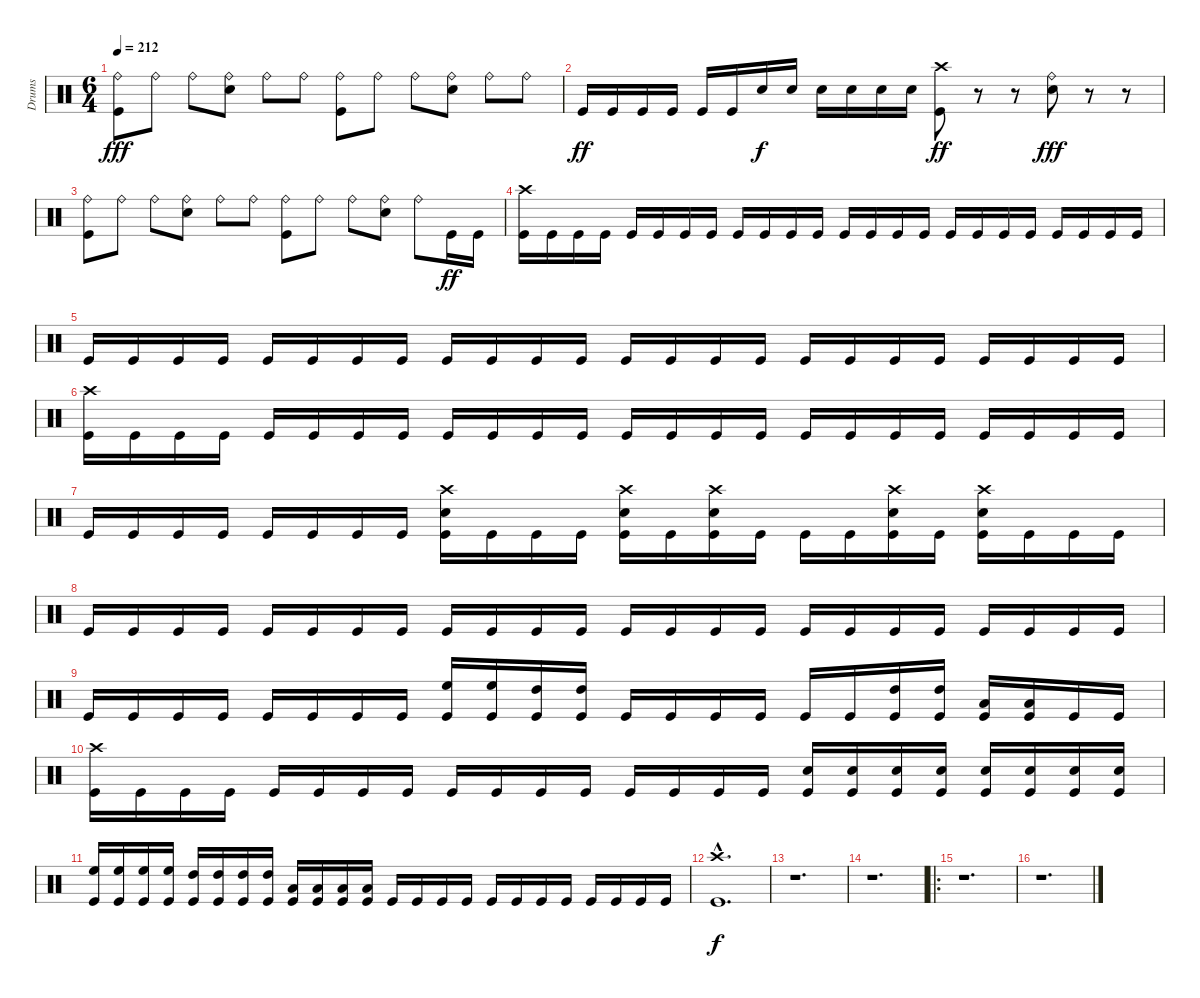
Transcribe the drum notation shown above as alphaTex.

\track ("Drums" "Drums") {instrument percussion}
\staff {score}
\articulation defaults
\ts (6 4)
\tempo 212
\clef neutral
\ks c
("Ride (bell)" "Kick (hit)").8{dy fff} "Ride (bell)".8 "Ride (bell)".8 ("Ride (bell)" "Snare (hit) 2").8 "Ride (bell)".8 "Ride (bell)".8 ("Ride (bell)" "Kick (hit)").8 "Ride (bell)".8 "Ride (bell)".8 ("Ride (bell)" "Snare (hit) 2").8 "Ride (bell)".8 "Ride (bell)".8 |
"Kick (hit)".16{dy ff} "Kick (hit)".16 "Kick (hit)".16 "Kick (hit)".16 "Kick (hit)".16 "Kick (hit)".16 "Snare (hit) 2".16{dy f} "Snare (hit) 2".16 "Snare (hit) 2".16 "Snare (hit) 2".16 "Snare (hit) 2".16 "Snare (hit) 2".16 ("Crash high (hit)" "Kick (hit)").8{dy ff} r.8 r.8 ("Ride (bell)" "Snare (hit) 2").8{dy fff} r.8 r.8 |
("Ride (bell)" "Kick (hit)").8 "Ride (bell)".8 "Ride (bell)".8 ("Ride (bell)" "Snare (hit) 2").8 "Ride (bell)".8 "Ride (bell)".8 ("Ride (bell)" "Kick (hit)").8 "Ride (bell)".8 "Ride (bell)".8 ("Ride (bell)" "Snare (hit) 2").8 "Ride (bell)".8 "Kick (hit)".16{dy ff} "Kick (hit)".16 |
("Crash high (hit)" "Kick (hit)").16 "Kick (hit)".16 "Kick (hit)".16 "Kick (hit)".16 "Kick (hit)".16 "Kick (hit)".16 "Kick (hit)".16 "Kick (hit)".16 "Kick (hit)".16 "Kick (hit)".16 "Kick (hit)".16 "Kick (hit)".16 "Kick (hit)".16 "Kick (hit)".16 "Kick (hit)".16 "Kick (hit)".16 "Kick (hit)".16 "Kick (hit)".16 "Kick (hit)".16 "Kick (hit)".16 "Kick (hit)".16 "Kick (hit)".16 "Kick (hit)".16 "Kick (hit)".16 |
"Kick (hit)".16 "Kick (hit)".16 "Kick (hit)".16 "Kick (hit)".16 "Kick (hit)".16 "Kick (hit)".16 "Kick (hit)".16 "Kick (hit)".16 "Kick (hit)".16 "Kick (hit)".16 "Kick (hit)".16 "Kick (hit)".16 "Kick (hit)".16 "Kick (hit)".16 "Kick (hit)".16 "Kick (hit)".16 "Kick (hit)".16 "Kick (hit)".16 "Kick (hit)".16 "Kick (hit)".16 "Kick (hit)".16 "Kick (hit)".16 "Kick (hit)".16 "Kick (hit)".16 |
("Crash high (hit)" "Kick (hit)").16 "Kick (hit)".16 "Kick (hit)".16 "Kick (hit)".16 "Kick (hit)".16 "Kick (hit)".16 "Kick (hit)".16 "Kick (hit)".16 "Kick (hit)".16 "Kick (hit)".16 "Kick (hit)".16 "Kick (hit)".16 "Kick (hit)".16 "Kick (hit)".16 "Kick (hit)".16 "Kick (hit)".16 "Kick (hit)".16 "Kick (hit)".16 "Kick (hit)".16 "Kick (hit)".16 "Kick (hit)".16 "Kick (hit)".16 "Kick (hit)".16 "Kick (hit)".16 |
"Kick (hit)".16 "Kick (hit)".16 "Kick (hit)".16 "Kick (hit)".16 "Kick (hit)".16 "Kick (hit)".16 "Kick (hit)".16 "Kick (hit)".16 ("Crash high (hit)" "Snare (hit) 2" "Kick (hit)").16 "Kick (hit)".16 "Kick (hit)".16 "Kick (hit)".16 ("Crash high (hit)" "Snare (hit) 2" "Kick (hit)").16 "Kick (hit)".16 ("Crash high (hit)" "Snare (hit) 2" "Kick (hit)").16 "Kick (hit)".16 "Kick (hit)".16 "Kick (hit)".16 ("Crash high (hit)" "Snare (hit) 2" "Kick (hit)").16 "Kick (hit)".16 ("Crash high (hit)" "Snare (hit) 2" "Kick (hit)").16 "Kick (hit)".16 "Kick (hit)".16 "Kick (hit)".16 |
"Kick (hit)".16 "Kick (hit)".16 "Kick (hit)".16 "Kick (hit)".16 "Kick (hit)".16 "Kick (hit)".16 "Kick (hit)".16 "Kick (hit)".16 "Kick (hit)".16 "Kick (hit)".16 "Kick (hit)".16 "Kick (hit)".16 "Kick (hit)".16 "Kick (hit)".16 "Kick (hit)".16 "Kick (hit)".16 "Kick (hit)".16 "Kick (hit)".16 "Kick (hit)".16 "Kick (hit)".16 "Kick (hit)".16 "Kick (hit)".16 "Kick (hit)".16 "Kick (hit)".16 |
"Kick (hit)".16 "Kick (hit)".16 "Kick (hit)".16 "Kick (hit)".16 "Kick (hit)".16 "Kick (hit)".16 "Kick (hit)".16 "Kick (hit)".16 ("High Floor Tom (hit)" "Kick (hit)").16 ("High Floor Tom (hit)" "Kick (hit)").16 ("High Tom (hit)" "Kick (hit)").16 ("High Tom (hit)" "Kick (hit)").16 "Kick (hit)".16 "Kick (hit)".16 "Kick (hit)".16 "Kick (hit)".16 "Kick (hit)".16 "Kick (hit)".16 ("High Tom (hit)" "Kick (hit)").16 ("High Tom (hit)" "Kick (hit)").16 ("Low Tom (hit)" "Kick (hit)").16 ("Low Tom (hit)" "Kick (hit)").16 "Kick (hit)".16 "Kick (hit)".16 |
("Crash high (hit)" "Kick (hit)").16 "Kick (hit)".16 "Kick (hit)".16 "Kick (hit)".16 "Kick (hit)".16 "Kick (hit)".16 "Kick (hit)".16 "Kick (hit)".16 "Kick (hit)".16 "Kick (hit)".16 "Kick (hit)".16 "Kick (hit)".16 "Kick (hit)".16 "Kick (hit)".16 "Kick (hit)".16 "Kick (hit)".16 ("Snare (hit) 2" "Kick (hit)").16 ("Snare (hit) 2" "Kick (hit)").16 ("Snare (hit) 2" "Kick (hit)").16 ("Snare (hit) 2" "Kick (hit)").16 ("Snare (hit) 2" "Kick (hit)").16 ("Snare (hit) 2" "Kick (hit)").16 ("Snare (hit) 2" "Kick (hit)").16 ("Snare (hit) 2" "Kick (hit)").16 |
("High Floor Tom (hit)" "Kick (hit)").16 ("High Floor Tom (hit)" "Kick (hit)").16 ("High Floor Tom (hit)" "Kick (hit)").16 ("High Floor Tom (hit)" "Kick (hit)").16 ("High Tom (hit)" "Kick (hit)").16 ("High Tom (hit)" "Kick (hit)").16 ("High Tom (hit)" "Kick (hit)").16 ("High Tom (hit)" "Kick (hit)").16 ("Low Tom (hit)" "Kick (hit)").16 ("Low Tom (hit)" "Kick (hit)").16 ("Low Tom (hit)" "Kick (hit)").16 ("Low Tom (hit)" "Kick (hit)").16 "Kick (hit)".16 "Kick (hit)".16 "Kick (hit)".16 "Kick (hit)".16 "Kick (hit)".16 "Kick (hit)".16 "Kick (hit)".16 "Kick (hit)".16 "Kick (hit)".16 "Kick (hit)".16 "Kick (hit)".16 "Kick (hit)".16 |
("Crash high (hit)"{hac} "Kick (hit)"{hac}).1{d dy f} |
r.1{d} |
r.1{d} |
\ro
r.1{d} |
r.1{d}
